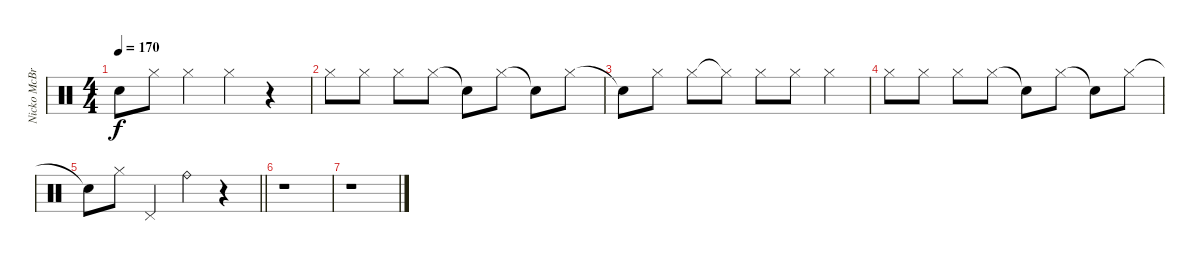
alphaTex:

\track ("Nicko McBrian" "Nicko McBr") {instrument percussion}
\staff {score}
\articulation defaults
\ts (4 4)
\tempo 170
\clef neutral
\ks c "Snare (hit)"{t}.8{dy f} "Hi-Hat (closed)".8 "Hi-Hat (closed)".4 "Hi-Hat (closed)".4
r.4 |
"Hi-Hat (closed)".8 "Hi-Hat (closed)".8 "Hi-Hat (closed)".8 "Hi-Hat (closed)".8 "Snare (hit)"{t}.8 "Hi-Hat (closed)".8 "Snare (hit)"{t}.8 "Hi-Hat (closed)".8 |
"Snare (hit)"{t}.8 "Hi-Hat (closed)".8 "Hi-Hat (closed)".8 "Hi-Hat (closed)"{t}.8 "Hi-Hat (closed)".8 "Hi-Hat (closed)".8 "Hi-Hat (closed)".4 |
"Hi-Hat (closed)".8 "Hi-Hat (closed)".8 "Hi-Hat (closed)".8 "Hi-Hat (closed)".8 "Snare (hit)"{t}.8 "Hi-Hat (closed)".8 "Snare (hit)"{t}.8 "Hi-Hat (closed)".8 |
\barLineRight lightlight "Snare (hit)"{t}.8 "Hi-Hat (closed)".8 "Pedal Hi-Hat (hit)".4 "Ride (bell)".4
r.4 |
r.1 |
r.1
